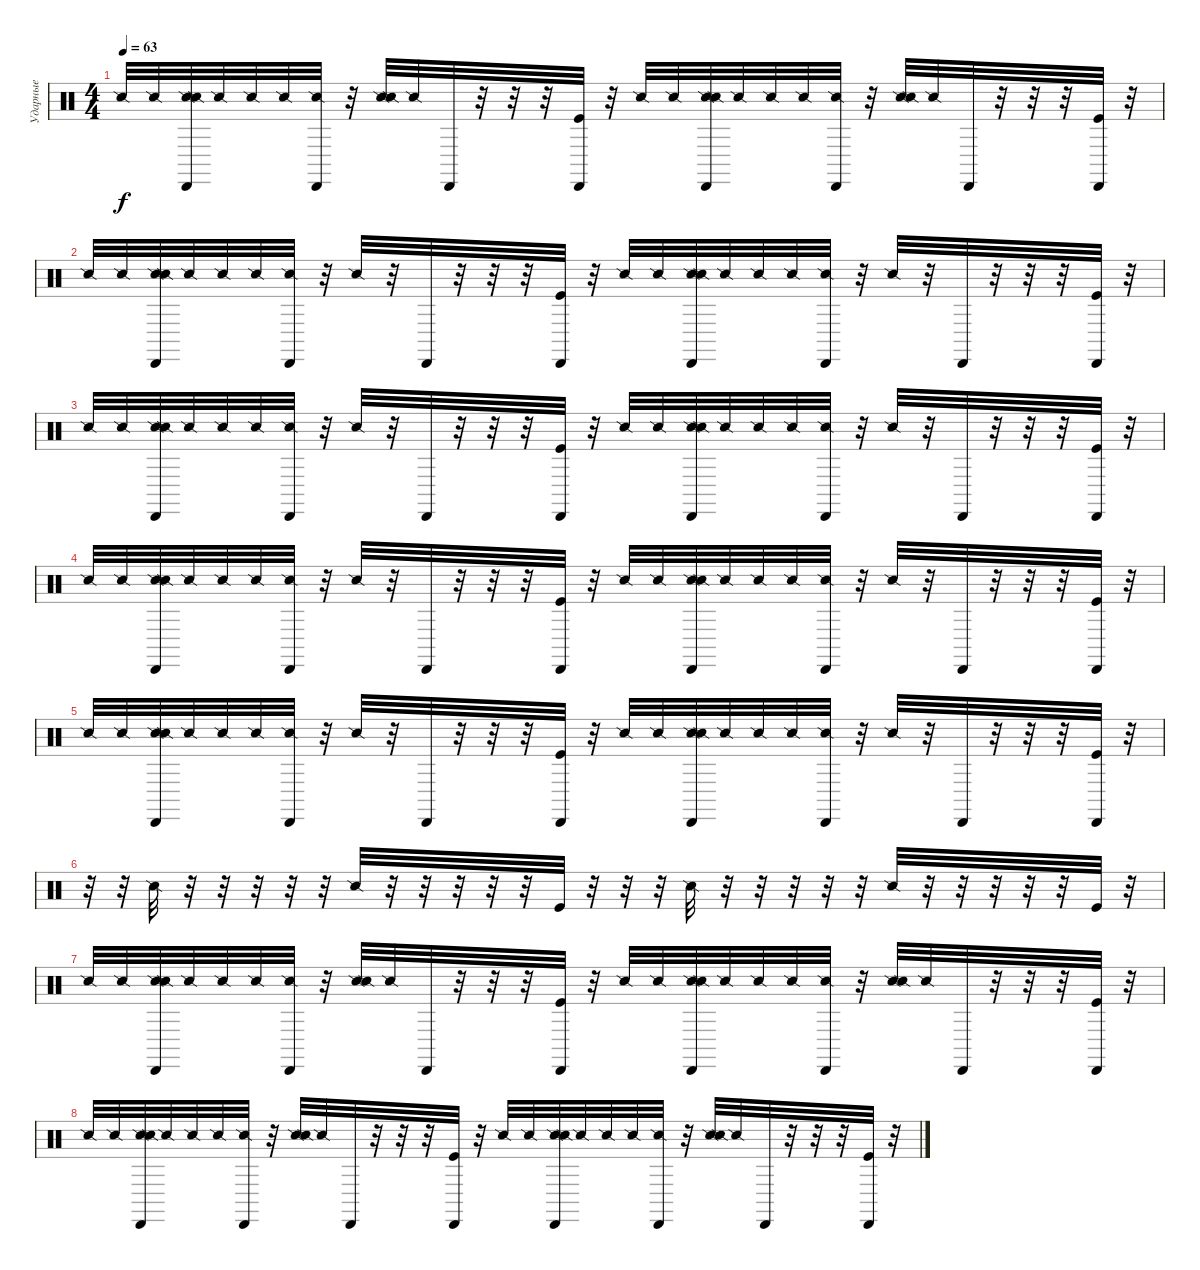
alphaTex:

\track ("Ударные" "Ударные") {instrument percussion}
\staff {score}
\articulation defaults
\ts (4 4)
\tempo 63
\clef neutral
\ks c "Snare (side stick) 2".32{dy f} "Snare (side stick) 2".32
("Snare (side stick) 2" "Snare (side stick) 2" "Cabasa (hit)").32 "Snare (side stick) 2".32 "Snare (side stick) 2".32 "Snare (side stick) 2".32 ("Snare (side stick) 2" "Cabasa (hit)").32 r.32 ("Snare (side stick) 2" "Snare (side stick) 2").32 "Snare (side stick) 2".32 "Cabasa (hit)".32 r.32 r.32 r.32 ("Kick (hit)" "Cabasa (hit)").32 r.32 "Snare (side stick) 2".32 "Snare (side stick) 2".32 ("Snare (side stick) 2" "Snare (side stick) 2" "Cabasa (hit)").32 "Snare (side stick) 2".32 "Snare (side stick) 2".32 "Snare (side stick) 2".32 ("Snare (side stick) 2" "Cabasa (hit)").32 r.32 ("Snare (side stick) 2" "Snare (side stick) 2").32 "Snare (side stick) 2".32 "Cabasa (hit)".32 r.32 r.32 r.32 ("Kick (hit)" "Cabasa (hit)").32 r.32 |
"Snare (side stick) 2".32 "Snare (side stick) 2".32 ("Snare (side stick) 2" "Snare (side stick) 2" "Cabasa (hit)").32 "Snare (side stick) 2".32 "Snare (side stick) 2".32 "Snare (side stick) 2".32 ("Snare (side stick) 2" "Cabasa (hit)").32 r.32 "Snare (side stick) 2".32 r.32 "Cabasa (hit)".32 r.32 r.32 r.32 ("Kick (hit)" "Cabasa (hit)").32 r.32 "Snare (side stick) 2".32 "Snare (side stick) 2".32 ("Snare (side stick) 2" "Snare (side stick) 2" "Cabasa (hit)").32 "Snare (side stick) 2".32 "Snare (side stick) 2".32 "Snare (side stick) 2".32 ("Snare (side stick) 2" "Cabasa (hit)").32 r.32 "Snare (side stick) 2".32 r.32 "Cabasa (hit)".32 r.32 r.32 r.32 ("Kick (hit)" "Cabasa (hit)").32 r.32 |
"Snare (side stick) 2".32 "Snare (side stick) 2".32 ("Snare (side stick) 2" "Snare (side stick) 2" "Cabasa (hit)").32 "Snare (side stick) 2".32 "Snare (side stick) 2".32 "Snare (side stick) 2".32 ("Snare (side stick) 2" "Cabasa (hit)").32 r.32 "Snare (side stick) 2".32 r.32 "Cabasa (hit)".32 r.32 r.32 r.32 ("Kick (hit)" "Cabasa (hit)").32 r.32 "Snare (side stick) 2".32 "Snare (side stick) 2".32 ("Snare (side stick) 2" "Snare (side stick) 2" "Cabasa (hit)").32 "Snare (side stick) 2".32 "Snare (side stick) 2".32 "Snare (side stick) 2".32 ("Snare (side stick) 2" "Cabasa (hit)").32 r.32 "Snare (side stick) 2".32 r.32 "Cabasa (hit)".32 r.32 r.32 r.32 ("Kick (hit)" "Cabasa (hit)").32 r.32 |
"Snare (side stick) 2".32 "Snare (side stick) 2".32 ("Snare (side stick) 2" "Snare (side stick) 2" "Cabasa (hit)").32 "Snare (side stick) 2".32 "Snare (side stick) 2".32 "Snare (side stick) 2".32 ("Snare (side stick) 2" "Cabasa (hit)").32 r.32 "Snare (side stick) 2".32 r.32 "Cabasa (hit)".32 r.32 r.32 r.32 ("Kick (hit)" "Cabasa (hit)").32 r.32 "Snare (side stick) 2".32 "Snare (side stick) 2".32 ("Snare (side stick) 2" "Snare (side stick) 2" "Cabasa (hit)").32 "Snare (side stick) 2".32 "Snare (side stick) 2".32 "Snare (side stick) 2".32 ("Snare (side stick) 2" "Cabasa (hit)").32 r.32 "Snare (side stick) 2".32 r.32 "Cabasa (hit)".32 r.32 r.32 r.32 ("Kick (hit)" "Cabasa (hit)").32 r.32 |
"Snare (side stick) 2".32 "Snare (side stick) 2".32 ("Snare (side stick) 2" "Snare (side stick) 2" "Cabasa (hit)").32 "Snare (side stick) 2".32 "Snare (side stick) 2".32 "Snare (side stick) 2".32 ("Snare (side stick) 2" "Cabasa (hit)").32 r.32 "Snare (side stick) 2".32 r.32 "Cabasa (hit)".32 r.32 r.32 r.32 ("Kick (hit)" "Cabasa (hit)").32 r.32 "Snare (side stick) 2".32 "Snare (side stick) 2".32 ("Snare (side stick) 2" "Snare (side stick) 2" "Cabasa (hit)").32 "Snare (side stick) 2".32 "Snare (side stick) 2".32 "Snare (side stick) 2".32 ("Snare (side stick) 2" "Cabasa (hit)").32 r.32 "Snare (side stick) 2".32 r.32 "Cabasa (hit)".32 r.32 r.32 r.32 ("Kick (hit)" "Cabasa (hit)").32 r.32 |
r.32 r.32 "Snare (side stick) 2".32 r.32 r.32 r.32 r.32 r.32 "Snare (side stick) 2".32 r.32 r.32 r.32 r.32 r.32 "Kick (hit)".32 r.32 r.32 r.32 "Snare (side stick) 2".32 r.32 r.32 r.32 r.32 r.32 "Snare (side stick) 2".32 r.32 r.32 r.32 r.32 r.32 "Kick (hit)".32 r.32 |
"Snare (side stick) 2".32 "Snare (side stick) 2".32 ("Snare (side stick) 2" "Snare (side stick) 2" "Cabasa (hit)").32 "Snare (side stick) 2".32 "Snare (side stick) 2".32 "Snare (side stick) 2".32 ("Snare (side stick) 2" "Cabasa (hit)").32 r.32 ("Snare (side stick) 2" "Snare (side stick) 2").32 "Snare (side stick) 2".32 "Cabasa (hit)".32 r.32 r.32 r.32 ("Kick (hit)" "Cabasa (hit)").32 r.32 "Snare (side stick) 2".32 "Snare (side stick) 2".32 ("Snare (side stick) 2" "Snare (side stick) 2" "Cabasa (hit)").32 "Snare (side stick) 2".32 "Snare (side stick) 2".32 "Snare (side stick) 2".32 ("Snare (side stick) 2" "Cabasa (hit)").32 r.32 ("Snare (side stick) 2" "Snare (side stick) 2").32 "Snare (side stick) 2".32 "Cabasa (hit)".32 r.32 r.32 r.32 ("Kick (hit)" "Cabasa (hit)").32 r.32 |
"Snare (side stick) 2".32 "Snare (side stick) 2".32 ("Snare (side stick) 2" "Snare (side stick) 2" "Cabasa (hit)").32 "Snare (side stick) 2".32 "Snare (side stick) 2".32 "Snare (side stick) 2".32 ("Snare (side stick) 2" "Cabasa (hit)").32 r.32 ("Snare (side stick) 2" "Snare (side stick) 2").32 "Snare (side stick) 2".32 "Cabasa (hit)".32 r.32 r.32 r.32 ("Kick (hit)" "Cabasa (hit)").32 r.32 "Snare (side stick) 2".32 "Snare (side stick) 2".32 ("Snare (side stick) 2" "Snare (side stick) 2" "Cabasa (hit)").32 "Snare (side stick) 2".32 "Snare (side stick) 2".32 "Snare (side stick) 2".32 ("Snare (side stick) 2" "Cabasa (hit)").32 r.32 ("Snare (side stick) 2" "Snare (side stick) 2").32 "Snare (side stick) 2".32 "Cabasa (hit)".32 r.32 r.32 r.32 ("Kick (hit)" "Cabasa (hit)").32 r.32
